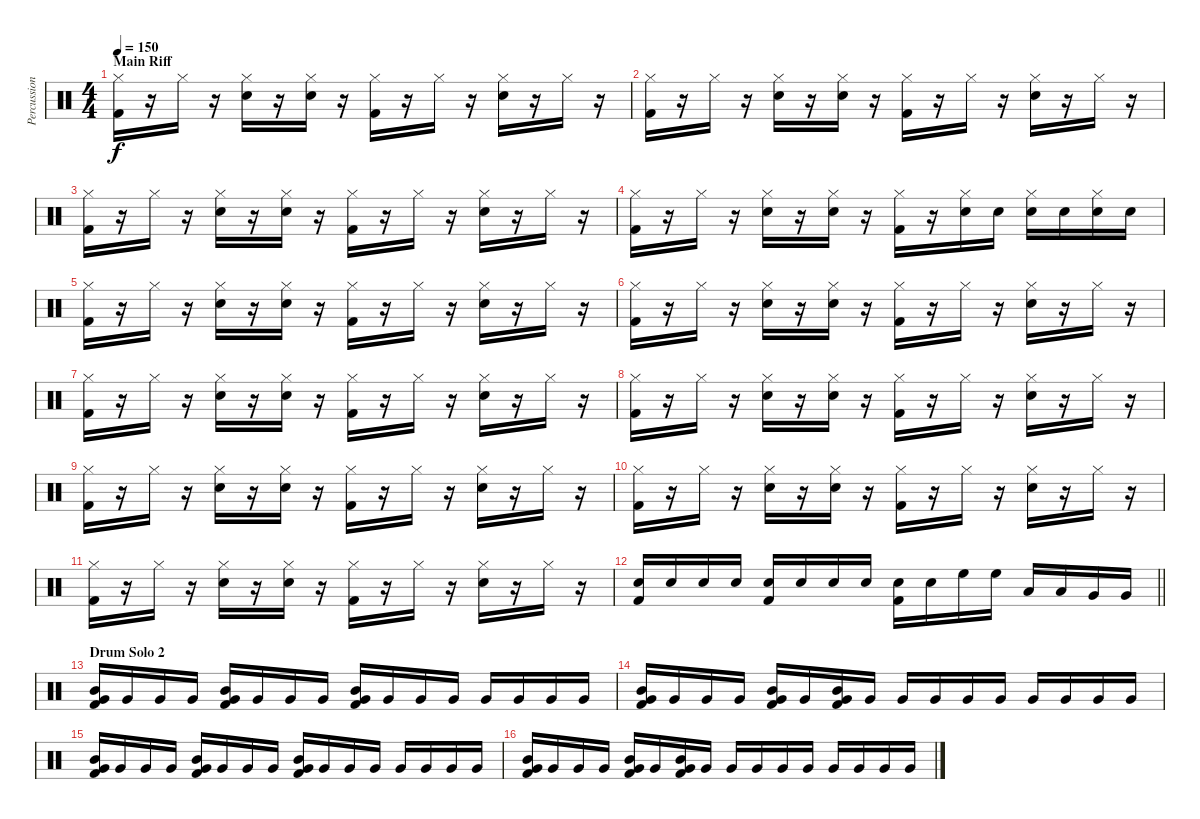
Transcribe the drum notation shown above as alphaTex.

\track ("Percussion" "Percussion") {instrument percussion}
\staff {score}
\articulation defaults
\ts (4 4)
\section ("" "Main Riff")
\tempo 150
\clef neutral
\ks c
("Hi-Hat (closed)" "Kick (hit) 2").16{dy f} r.16 "Hi-Hat (closed)".16 r.16 ("Hi-Hat (closed)" "Snare (hit) 2").16 r.16 ("Hi-Hat (closed)" "Snare (hit) 2").16 r.16 ("Hi-Hat (closed)" "Kick (hit) 2").16 r.16 "Hi-Hat (closed)".16 r.16 ("Hi-Hat (closed)" "Snare (hit) 2").16 r.16 "Hi-Hat (closed)".16 r.16 |
("Hi-Hat (closed)" "Kick (hit) 2").16 r.16 "Hi-Hat (closed)".16 r.16 ("Hi-Hat (closed)" "Snare (hit) 2").16 r.16 ("Hi-Hat (closed)" "Snare (hit) 2").16 r.16 ("Hi-Hat (closed)" "Kick (hit) 2").16 r.16 "Hi-Hat (closed)".16 r.16 ("Hi-Hat (closed)" "Snare (hit) 2").16 r.16 "Hi-Hat (closed)".16 r.16 |
("Hi-Hat (closed)" "Kick (hit) 2").16 r.16 "Hi-Hat (closed)".16 r.16 ("Hi-Hat (closed)" "Snare (hit) 2").16 r.16 ("Hi-Hat (closed)" "Snare (hit) 2").16 r.16 ("Hi-Hat (closed)" "Kick (hit) 2").16 r.16 "Hi-Hat (closed)".16 r.16 ("Hi-Hat (closed)" "Snare (hit) 2").16 r.16 "Hi-Hat (closed)".16 r.16 |
("Hi-Hat (closed)" "Kick (hit) 2").16 r.16 "Hi-Hat (closed)".16 r.16 ("Hi-Hat (closed)" "Snare (hit) 2").16 r.16 ("Hi-Hat (closed)" "Snare (hit) 2").16 r.16 ("Hi-Hat (closed)" "Kick (hit) 2").16 r.16 ("Hi-Hat (closed)" "Snare (hit) 2").16 "Snare (hit) 2".16 ("Hi-Hat (closed)" "Snare (hit) 2").16 "Snare (hit) 2".16 ("Hi-Hat (closed)" "Snare (hit) 2").16 "Snare (hit) 2".16 |
("Hi-Hat (closed)" "Kick (hit) 2").16 r.16 "Hi-Hat (closed)".16 r.16 ("Hi-Hat (closed)" "Snare (hit) 2").16 r.16 ("Hi-Hat (closed)" "Snare (hit) 2").16 r.16 ("Hi-Hat (closed)" "Kick (hit) 2").16 r.16 "Hi-Hat (closed)".16 r.16 ("Hi-Hat (closed)" "Snare (hit) 2").16 r.16 "Hi-Hat (closed)".16 r.16 |
("Hi-Hat (closed)" "Kick (hit) 2").16 r.16 "Hi-Hat (closed)".16 r.16 ("Hi-Hat (closed)" "Snare (hit) 2").16 r.16 ("Hi-Hat (closed)" "Snare (hit) 2").16 r.16 ("Hi-Hat (closed)" "Kick (hit) 2").16 r.16 "Hi-Hat (closed)".16 r.16 ("Hi-Hat (closed)" "Snare (hit) 2").16 r.16 "Hi-Hat (closed)".16 r.16 |
("Hi-Hat (closed)" "Kick (hit) 2").16 r.16 "Hi-Hat (closed)".16 r.16 ("Hi-Hat (closed)" "Snare (hit) 2").16 r.16 ("Hi-Hat (closed)" "Snare (hit) 2").16 r.16 ("Hi-Hat (closed)" "Kick (hit) 2").16 r.16 "Hi-Hat (closed)".16 r.16 ("Hi-Hat (closed)" "Snare (hit) 2").16 r.16 "Hi-Hat (closed)".16 r.16 |
("Hi-Hat (closed)" "Kick (hit) 2").16 r.16 "Hi-Hat (closed)".16 r.16 ("Hi-Hat (closed)" "Snare (hit) 2").16 r.16 ("Hi-Hat (closed)" "Snare (hit) 2").16 r.16 ("Hi-Hat (closed)" "Kick (hit) 2").16 r.16 "Hi-Hat (closed)".16 r.16 ("Hi-Hat (closed)" "Snare (hit) 2").16 r.16 "Hi-Hat (closed)".16 r.16 |
("Hi-Hat (closed)" "Kick (hit) 2").16 r.16 "Hi-Hat (closed)".16 r.16 ("Hi-Hat (closed)" "Snare (hit) 2").16 r.16 ("Hi-Hat (closed)" "Snare (hit) 2").16 r.16 ("Hi-Hat (closed)" "Kick (hit) 2").16 r.16 "Hi-Hat (closed)".16 r.16 ("Hi-Hat (closed)" "Snare (hit) 2").16 r.16 "Hi-Hat (closed)".16 r.16 |
("Hi-Hat (closed)" "Kick (hit) 2").16 r.16 "Hi-Hat (closed)".16 r.16 ("Hi-Hat (closed)" "Snare (hit) 2").16 r.16 ("Hi-Hat (closed)" "Snare (hit) 2").16 r.16 ("Hi-Hat (closed)" "Kick (hit) 2").16 r.16 "Hi-Hat (closed)".16 r.16 ("Hi-Hat (closed)" "Snare (hit) 2").16 r.16 "Hi-Hat (closed)".16 r.16 |
("Hi-Hat (closed)" "Kick (hit) 2").16 r.16 "Hi-Hat (closed)".16 r.16 ("Hi-Hat (closed)" "Snare (hit) 2").16 r.16 ("Hi-Hat (closed)" "Snare (hit) 2").16 r.16 ("Hi-Hat (closed)" "Kick (hit) 2").16 r.16 "Hi-Hat (closed)".16 r.16 ("Hi-Hat (closed)" "Snare (hit) 2").16 r.16 "Hi-Hat (closed)".16 r.16 |
\barLineRight lightlight
("Snare (hit) 2" "Kick (hit) 2").16 "Snare (hit) 2".16 "Snare (hit) 2".16 "Snare (hit) 2".16 ("Snare (hit) 2" "Kick (hit) 2").16 "Snare (hit) 2".16 "Snare (hit) 2".16 "Snare (hit) 2".16 ("Snare (hit) 2" "Kick (hit) 2").16 "Snare (hit) 2".16 "High Floor Tom (hit)".16 "High Floor Tom (hit)".16 "Low Tom (hit)".16 "Low Tom (hit)".16 "Very Low Tom (hit)".16 "Very Low Tom (hit)".16 |
\section ("" "Drum Solo 2")
("Mid Tom (hit)" "Very Low Tom (hit)" "Kick (hit) 2").16 "Very Low Tom (hit)".16 "Very Low Tom (hit)".16 "Very Low Tom (hit)".16 ("Mid Tom (hit)" "Very Low Tom (hit)" "Kick (hit) 2").16 "Very Low Tom (hit)".16 "Very Low Tom (hit)".16 "Very Low Tom (hit)".16 ("Mid Tom (hit)" "Very Low Tom (hit)" "Kick (hit) 2").16 "Very Low Tom (hit)".16 "Very Low Tom (hit)".16 "Very Low Tom (hit)".16 "Very Low Tom (hit)".16 "Very Low Tom (hit)".16 "Very Low Tom (hit)".16 "Very Low Tom (hit)".16 |
("Mid Tom (hit)" "Very Low Tom (hit)" "Kick (hit) 2").16 "Very Low Tom (hit)".16 "Very Low Tom (hit)".16 "Very Low Tom (hit)".16 ("Mid Tom (hit)" "Very Low Tom (hit)" "Kick (hit) 2").16 "Very Low Tom (hit)".16 ("Mid Tom (hit)" "Very Low Tom (hit)" "Kick (hit) 2").16 "Very Low Tom (hit)".16 "Very Low Tom (hit)".16 "Very Low Tom (hit)".16 "Very Low Tom (hit)".16 "Very Low Tom (hit)".16 "Very Low Tom (hit)".16 "Very Low Tom (hit)".16 "Very Low Tom (hit)".16 "Very Low Tom (hit)".16 |
("Mid Tom (hit)" "Very Low Tom (hit)" "Kick (hit) 2").16 "Very Low Tom (hit)".16 "Very Low Tom (hit)".16 "Very Low Tom (hit)".16 ("Mid Tom (hit)" "Very Low Tom (hit)" "Kick (hit) 2").16 "Very Low Tom (hit)".16 "Very Low Tom (hit)".16 "Very Low Tom (hit)".16 ("Mid Tom (hit)" "Very Low Tom (hit)" "Kick (hit) 2").16 "Very Low Tom (hit)".16 "Very Low Tom (hit)".16 "Very Low Tom (hit)".16 "Very Low Tom (hit)".16 "Very Low Tom (hit)".16 "Very Low Tom (hit)".16 "Very Low Tom (hit)".16 |
("Mid Tom (hit)" "Very Low Tom (hit)" "Kick (hit) 2").16 "Very Low Tom (hit)".16 "Very Low Tom (hit)".16 "Very Low Tom (hit)".16 ("Mid Tom (hit)" "Very Low Tom (hit)" "Kick (hit) 2").16 "Very Low Tom (hit)".16 ("Mid Tom (hit)" "Very Low Tom (hit)" "Kick (hit) 2").16 "Very Low Tom (hit)".16 "Very Low Tom (hit)".16 "Very Low Tom (hit)".16 "Very Low Tom (hit)".16 "Very Low Tom (hit)".16 "Very Low Tom (hit)".16 "Very Low Tom (hit)".16 "Very Low Tom (hit)".16 "Very Low Tom (hit)".16
